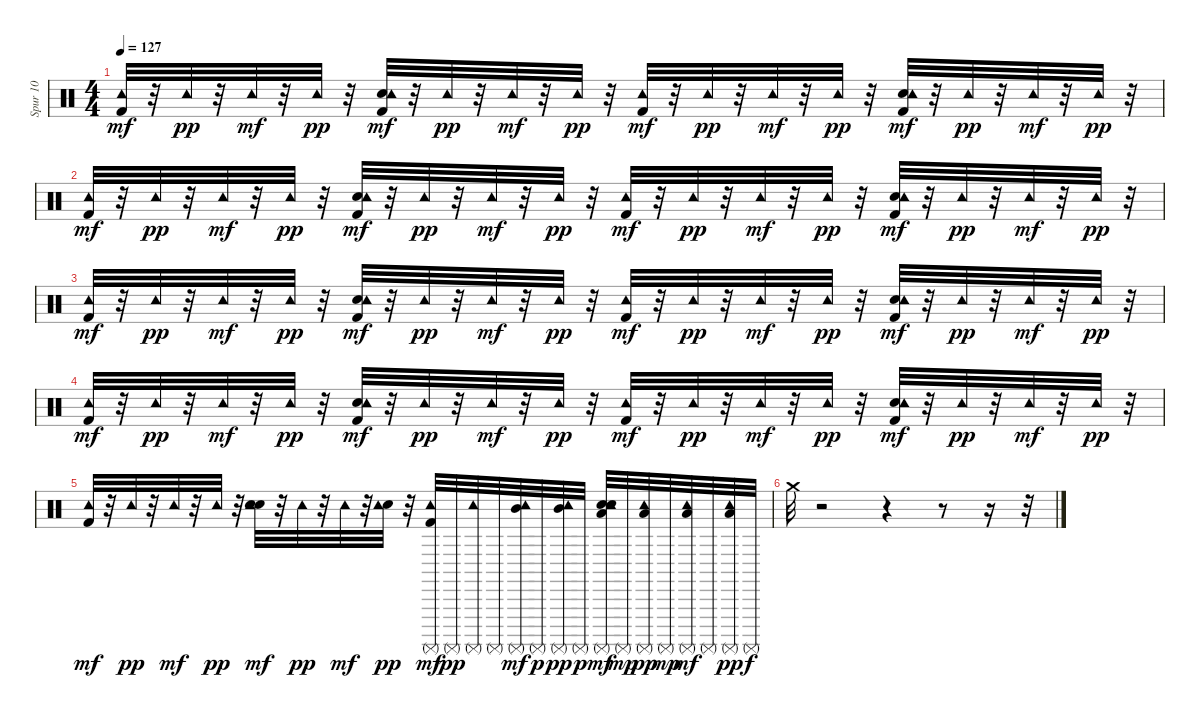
\track ("Spur 10" "Spur 10") {instrument percussion}
\staff {score}
\articulation defaults
\ts (4 4)
\tempo 127
\clef neutral
\ks c
("Kick (hit) 2" "Tambourine (hit)").32{dy mf} r.32 "Tambourine (hit)".32{dy pp} r.32 "Tambourine (hit)".32{dy mf} r.32 "Tambourine (hit)".32{dy pp} r.32 ("Kick (hit) 2" "Snare (hit) 2" "Tambourine (hit)").32{dy mf} r.32 "Tambourine (hit)".32{dy pp} r.32 "Tambourine (hit)".32{dy mf} r.32 "Tambourine (hit)".32{dy pp} r.32 ("Kick (hit) 2" "Tambourine (hit)").32{dy mf} r.32 "Tambourine (hit)".32{dy pp} r.32 "Tambourine (hit)".32{dy mf} r.32 "Tambourine (hit)".32{dy pp} r.32 ("Kick (hit) 2" "Snare (hit) 2" "Tambourine (hit)").32{dy mf} r.32 "Tambourine (hit)".32{dy pp} r.32 "Tambourine (hit)".32{dy mf} r.32 "Tambourine (hit)".32{dy pp} r.32 |
("Kick (hit) 2" "Tambourine (hit)").32{dy mf} r.32 "Tambourine (hit)".32{dy pp} r.32 "Tambourine (hit)".32{dy mf} r.32 "Tambourine (hit)".32{dy pp} r.32 ("Kick (hit) 2" "Snare (hit) 2" "Tambourine (hit)").32{dy mf} r.32 "Tambourine (hit)".32{dy pp} r.32 "Tambourine (hit)".32{dy mf} r.32 "Tambourine (hit)".32{dy pp} r.32 ("Kick (hit) 2" "Tambourine (hit)").32{dy mf} r.32 "Tambourine (hit)".32{dy pp} r.32 "Tambourine (hit)".32{dy mf} r.32 "Tambourine (hit)".32{dy pp} r.32 ("Kick (hit) 2" "Snare (hit) 2" "Tambourine (hit)").32{dy mf} r.32 "Tambourine (hit)".32{dy pp} r.32 "Tambourine (hit)".32{dy mf} r.32 "Tambourine (hit)".32{dy pp} r.32 |
("Kick (hit) 2" "Tambourine (hit)").32{dy mf} r.32 "Tambourine (hit)".32{dy pp} r.32 "Tambourine (hit)".32{dy mf} r.32 "Tambourine (hit)".32{dy pp} r.32 ("Kick (hit) 2" "Snare (hit) 2" "Tambourine (hit)").32{dy mf} r.32 "Tambourine (hit)".32{dy pp} r.32 "Tambourine (hit)".32{dy mf} r.32 "Tambourine (hit)".32{dy pp} r.32 ("Kick (hit) 2" "Tambourine (hit)").32{dy mf} r.32 "Tambourine (hit)".32{dy pp} r.32 "Tambourine (hit)".32{dy mf} r.32 "Tambourine (hit)".32{dy pp} r.32 ("Kick (hit) 2" "Snare (hit) 2" "Tambourine (hit)").32{dy mf} r.32 "Tambourine (hit)".32{dy pp} r.32 "Tambourine (hit)".32{dy mf} r.32 "Tambourine (hit)".32{dy pp} r.32 |
("Kick (hit) 2" "Tambourine (hit)").32{dy mf} r.32 "Tambourine (hit)".32{dy pp} r.32 "Tambourine (hit)".32{dy mf} r.32 "Tambourine (hit)".32{dy pp} r.32 ("Kick (hit) 2" "Snare (hit) 2" "Tambourine (hit)").32{dy mf} r.32 "Tambourine (hit)".32{dy pp} r.32 "Tambourine (hit)".32{dy mf} r.32 "Tambourine (hit)".32{dy pp} r.32 ("Kick (hit) 2" "Tambourine (hit)").32{dy mf} r.32 "Tambourine (hit)".32{dy pp} r.32 "Tambourine (hit)".32{dy mf} r.32 "Tambourine (hit)".32{dy pp} r.32 ("Kick (hit) 2" "Snare (hit) 2" "Tambourine (hit)").32{dy mf} r.32 "Tambourine (hit)".32{dy pp} r.32 "Tambourine (hit)".32{dy mf} r.32 "Tambourine (hit)".32{dy pp} r.32 |
("Kick (hit) 2" "Tambourine (hit)").32{dy mf} r.32 "Tambourine (hit)".32{dy pp} r.32 "Tambourine (hit)".32{dy mf} r.32 "Tambourine (hit)".32{dy pp} r.32 ("Snare (hit) 2" "Electric Snare (hit)" "Tambourine (hit)").32{dy mf} r.32 "Tambourine (hit)".32{dy pp} r.32 "Tambourine (hit)".32{dy mf} r.32 ("Electric Snare (hit)" "Tambourine (hit)").32{dy pp} r.32 ("Kick (hit) 2" "Surdo (mute)" "Tambourine (hit)").32{dy mf} "Surdo (mute)".32{dy pp} ("Surdo (mute)" "Tambourine (hit)").32 "Surdo (mute)".32 ("Surdo (mute)" "Tambourine (hit)" "Mid Tom (hit)").32{dy mf} "Surdo (mute)".32{dy p} ("Surdo (mute)" "Tambourine (hit)" "Mid Tom (hit)").32{dy pp} "Surdo (mute)".32{dy p} ("Snare (hit) 2" "Electric Snare (hit)" "Surdo (mute)" "Low Tom (hit)" "Tambourine (hit)").32{dy mf} "Surdo (mute)".32{dy mp} ("Surdo (mute)" "Low Tom (hit)" "Tambourine (hit)").32{dy pp} "Surdo (mute)".32{dy mp} ("Surdo (mute)" "Low Floor Tom (hit)" "Tambourine (hit)").32{dy mf} "Surdo (mute)".32 ("Surdo (mute)" "Low Floor Tom (hit)" "Tambourine (hit)").32{dy pp} "Surdo (mute)".32{dy f} |
"Crash medium (hit)".32 r.2 r.4 r.8 r.16 r.32
